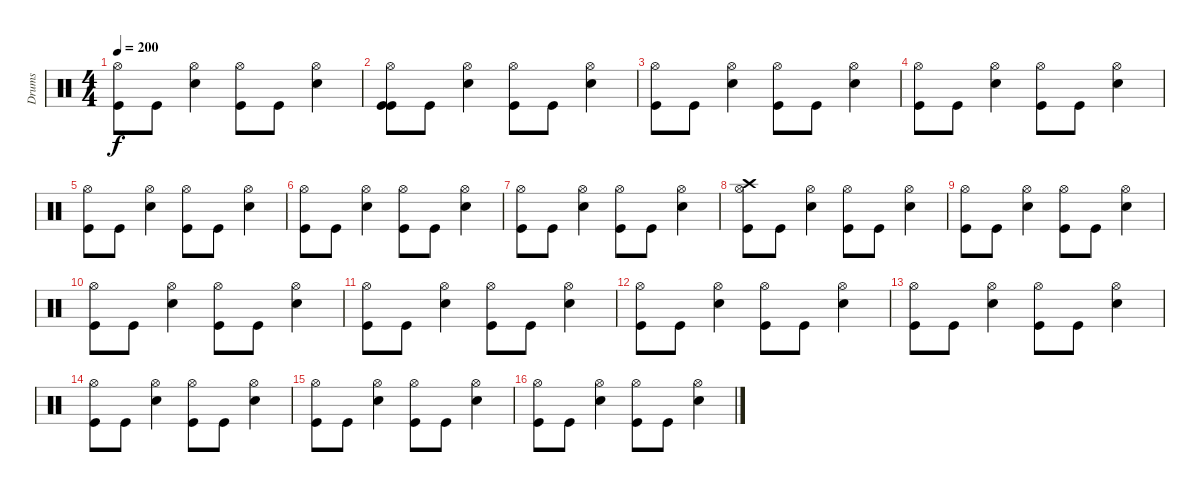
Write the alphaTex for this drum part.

\track ("Drums" "Drums") {instrument percussion}
\staff {score}
\articulation defaults
\ts (4 4)
\tempo 200
\clef neutral
\ks c
("Kick (hit)" "Hi-Hat (open)").8{dy f} "Kick (hit)".8 ("Electric Snare (hit)" "Hi-Hat (open)").4 ("Hi-Hat (open)" "Kick (hit)").8 "Kick (hit)".8 ("Electric Snare (hit)" "Hi-Hat (open)").4 |
("Kick (hit)" "Hi-Hat (open)" "Kick (hit)").8 "Kick (hit)".8 ("Hi-Hat (open)" "Electric Snare (hit)").4 ("Hi-Hat (open)" "Kick (hit)").8 "Kick (hit)".8 ("Hi-Hat (open)" "Electric Snare (hit)").4 |
("Kick (hit)" "Hi-Hat (open)").8 "Kick (hit)".8 ("Electric Snare (hit)" "Hi-Hat (open)").4 ("Hi-Hat (open)" "Kick (hit)").8 "Kick (hit)".8 ("Electric Snare (hit)" "Hi-Hat (open)").4 |
("Kick (hit)" "Hi-Hat (open)").8 "Kick (hit)".8 ("Electric Snare (hit)" "Hi-Hat (open)").4 ("Hi-Hat (open)" "Kick (hit)").8 "Kick (hit)".8 ("Electric Snare (hit)" "Hi-Hat (open)").4 |
("Kick (hit)" "Hi-Hat (open)").8 "Kick (hit)".8 ("Electric Snare (hit)" "Hi-Hat (open)").4 ("Hi-Hat (open)" "Kick (hit)").8 "Kick (hit)".8 ("Electric Snare (hit)" "Hi-Hat (open)").4 |
("Kick (hit)" "Hi-Hat (open)").8 "Kick (hit)".8 ("Electric Snare (hit)" "Hi-Hat (open)").4 ("Hi-Hat (open)" "Kick (hit)").8 "Kick (hit)".8 ("Electric Snare (hit)" "Hi-Hat (open)").4 |
("Kick (hit)" "Hi-Hat (open)").8 "Kick (hit)".8 ("Electric Snare (hit)" "Hi-Hat (open)").4 ("Hi-Hat (open)" "Kick (hit)").8 "Kick (hit)".8 ("Electric Snare (hit)" "Hi-Hat (open)").4 |
("Crash high (hit)" "Hi-Hat (open)" "Kick (hit)").8 "Kick (hit)".8 ("Hi-Hat (open)" "Electric Snare (hit)").4 ("Hi-Hat (open)" "Kick (hit)").8 "Kick (hit)".8 ("Hi-Hat (open)" "Electric Snare (hit)").4 |
("Kick (hit)" "Hi-Hat (open)").8 "Kick (hit)".8 ("Electric Snare (hit)" "Hi-Hat (open)").4 ("Hi-Hat (open)" "Kick (hit)").8 "Kick (hit)".8 ("Electric Snare (hit)" "Hi-Hat (open)").4 |
("Kick (hit)" "Hi-Hat (open)").8 "Kick (hit)".8 ("Electric Snare (hit)" "Hi-Hat (open)").4 ("Hi-Hat (open)" "Kick (hit)").8 "Kick (hit)".8 ("Electric Snare (hit)" "Hi-Hat (open)").4 |
("Kick (hit)" "Hi-Hat (open)").8 "Kick (hit)".8 ("Electric Snare (hit)" "Hi-Hat (open)").4 ("Hi-Hat (open)" "Kick (hit)").8 "Kick (hit)".8 ("Electric Snare (hit)" "Hi-Hat (open)").4 |
("Kick (hit)" "Hi-Hat (open)").8 "Kick (hit)".8 ("Electric Snare (hit)" "Hi-Hat (open)").4 ("Hi-Hat (open)" "Kick (hit)").8 "Kick (hit)".8 ("Electric Snare (hit)" "Hi-Hat (open)").4 |
("Kick (hit)" "Hi-Hat (open)").8 "Kick (hit)".8 ("Electric Snare (hit)" "Hi-Hat (open)").4 ("Hi-Hat (open)" "Kick (hit)").8 "Kick (hit)".8 ("Electric Snare (hit)" "Hi-Hat (open)").4 |
("Kick (hit)" "Hi-Hat (open)").8 "Kick (hit)".8 ("Electric Snare (hit)" "Hi-Hat (open)").4 ("Kick (hit)" "Hi-Hat (open)").8 "Kick (hit)".8 ("Electric Snare (hit)" "Hi-Hat (open)").4 |
("Kick (hit)" "Hi-Hat (open)").8 "Kick (hit)".8 ("Electric Snare (hit)" "Hi-Hat (open)").4 ("Kick (hit)" "Hi-Hat (open)").8 "Kick (hit)".8 ("Electric Snare (hit)" "Hi-Hat (open)").4 |
("Kick (hit)" "Hi-Hat (open)").8 "Kick (hit)".8 ("Electric Snare (hit)" "Hi-Hat (open)").4 ("Kick (hit)" "Hi-Hat (open)").8 "Kick (hit)".8 ("Electric Snare (hit)" "Hi-Hat (open)").4
